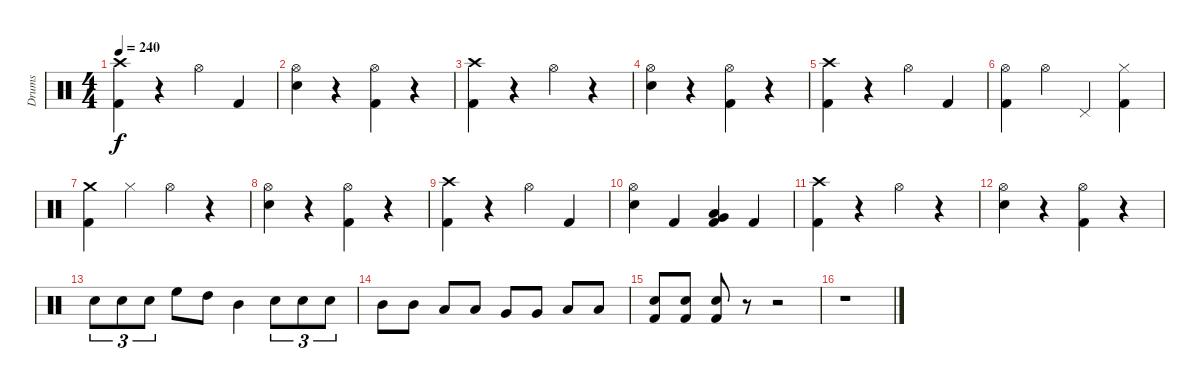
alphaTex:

\track ("Drums" "Drums") {instrument percussion}
\staff {score}
\articulation defaults
\ts (4 4)
\tempo 240
\clef neutral
\ks c
("Crash high (hit)" "Kick (hit) 2").4{dy f} r.4 "Hi-Hat (open)".4 "Kick (hit) 2".4 |
("Hi-Hat (open)" "Snare (hit) 2").4 r.4 ("Hi-Hat (open)" "Kick (hit) 2").4 r.4 |
("Crash high (hit)" "Kick (hit) 2").4 r.4 "Hi-Hat (open)".4 r.4 |
("Hi-Hat (open)" "Snare (hit) 2").4 r.4 ("Hi-Hat (open)" "Kick (hit) 2").4 r.4 |
("Crash high (hit)" "Kick (hit) 2").4 r.4 "Hi-Hat (open)".4 "Kick (hit) 2".4 |
("Hi-Hat (open)" "Kick (hit) 2").4 "Hi-Hat (open)".4 "Pedal Hi-Hat (hit)".4 ("Hi-Hat (closed)" "Kick (hit) 2").4 |
("Crash medium (hit)" "Kick (hit) 2").4 "Hi-Hat (closed)".4 "Hi-Hat (open)".4 r.4 |
("Hi-Hat (open)" "Snare (hit) 2").4 r.4 ("Hi-Hat (open)" "Kick (hit) 2").4 r.4 |
("Crash high (hit)" "Kick (hit) 2").4 r.4 "Hi-Hat (open)".4 "Kick (hit) 2".4 |
("Hi-Hat (open)" "Snare (hit) 2").4 "Kick (hit) 2".4 ("Very Low Tom (hit)" "Low Floor Tom (hit)" "Kick (hit) 2").4 "Kick (hit) 2".4 |
("Crash high (hit)" "Kick (hit) 2").4 r.4 "Hi-Hat (open)".4 r.4 |
("Hi-Hat (open)" "Snare (hit) 2").4 r.4 ("Hi-Hat (open)" "Kick (hit) 2").4 r.4 |
"Snare (hit) 2".8{tu (3 2)} "Snare (hit) 2".8{tu (3 2)} "Snare (hit) 2".8{tu (3 2)} "High Floor Tom (hit)".8 "High Tom (hit)".8 "Mid Tom (hit)".4 "Snare (hit) 2".8{tu (3 2)} "Snare (hit) 2".8{tu (3 2)} "Snare (hit) 2".8{tu (3 2)} |
"Mid Tom (hit)".8 "Mid Tom (hit)".8 "Low Tom (hit)".8 "Low Tom (hit)".8 "Very Low Tom (hit)".8 "Very Low Tom (hit)".8 "Low Floor Tom (hit)".8 "Low Floor Tom (hit)".8 |
("Snare (hit) 2" "Kick (hit) 2").8 ("Snare (hit) 2" "Kick (hit) 2").8 ("Snare (hit) 2" "Kick (hit) 2").8 r.8 r.2 |
r.1
